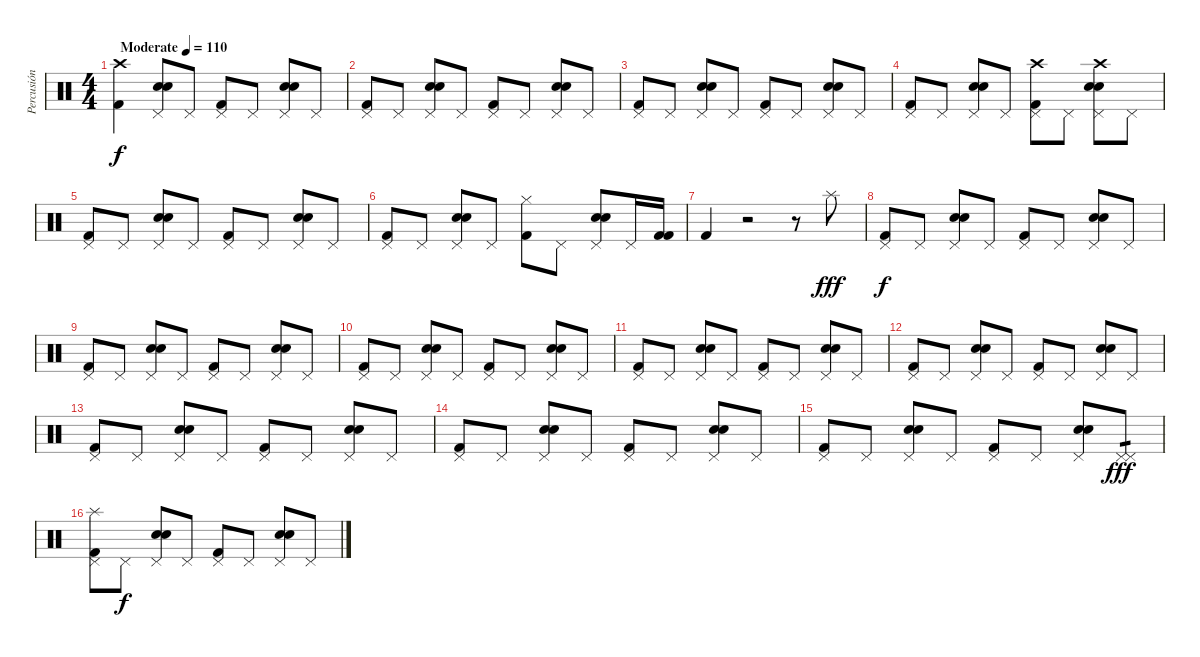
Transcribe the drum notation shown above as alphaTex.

\track ("Percusión" "Percusión") {instrument percussion}
\staff {score}
\articulation defaults
\ts (4 4)
\tempo (110 "Moderate")
\clef neutral
\ks c
("Crash high (hit)" "Kick (hit) 2").4{dy f} ("Pedal Hi-Hat (hit)" "Snare (hit) 2" "Electric Snare (hit)").8 "Pedal Hi-Hat (hit)".8 ("Pedal Hi-Hat (hit)" "Kick (hit) 2").8 "Pedal Hi-Hat (hit)".8 ("Pedal Hi-Hat (hit)" "Snare (hit) 2" "Electric Snare (hit)").8 "Pedal Hi-Hat (hit)".8 |
("Pedal Hi-Hat (hit)" "Kick (hit) 2").8 "Pedal Hi-Hat (hit)".8 ("Pedal Hi-Hat (hit)" "Snare (hit) 2" "Electric Snare (hit)").8 "Pedal Hi-Hat (hit)".8 ("Pedal Hi-Hat (hit)" "Kick (hit) 2").8 "Pedal Hi-Hat (hit)".8 ("Pedal Hi-Hat (hit)" "Snare (hit) 2" "Electric Snare (hit)").8 "Pedal Hi-Hat (hit)".8 |
("Pedal Hi-Hat (hit)" "Kick (hit) 2").8 "Pedal Hi-Hat (hit)".8 ("Pedal Hi-Hat (hit)" "Snare (hit) 2" "Electric Snare (hit)").8 "Pedal Hi-Hat (hit)".8 ("Pedal Hi-Hat (hit)" "Kick (hit) 2").8 "Pedal Hi-Hat (hit)".8 ("Pedal Hi-Hat (hit)" "Snare (hit) 2" "Electric Snare (hit)").8 "Pedal Hi-Hat (hit)".8 |
("Pedal Hi-Hat (hit)" "Kick (hit) 2").8 "Pedal Hi-Hat (hit)".8 ("Pedal Hi-Hat (hit)" "Snare (hit) 2" "Electric Snare (hit)").8 "Pedal Hi-Hat (hit)".8 ("Pedal Hi-Hat (hit)" "Kick (hit) 2" "Crash high (hit)").8 "Pedal Hi-Hat (hit)".8 ("Pedal Hi-Hat (hit)" "Snare (hit) 2" "Electric Snare (hit)" "Crash high (hit)").8 "Pedal Hi-Hat (hit)".8 |
("Pedal Hi-Hat (hit)" "Kick (hit) 2").8 "Pedal Hi-Hat (hit)".8 ("Pedal Hi-Hat (hit)" "Snare (hit) 2" "Electric Snare (hit)").8 "Pedal Hi-Hat (hit)".8 ("Pedal Hi-Hat (hit)" "Kick (hit) 2").8 "Pedal Hi-Hat (hit)".8 ("Pedal Hi-Hat (hit)" "Snare (hit) 2" "Electric Snare (hit)").8 "Pedal Hi-Hat (hit)".8 |
("Pedal Hi-Hat (hit)" "Kick (hit) 2").8 "Pedal Hi-Hat (hit)".8 ("Pedal Hi-Hat (hit)" "Snare (hit) 2" "Electric Snare (hit)").8 "Pedal Hi-Hat (hit)".8 ("Hi-Hat (closed)" "Kick (hit) 2").8 "Pedal Hi-Hat (hit)".8 ("Pedal Hi-Hat (hit)" "Snare (hit) 2" "Electric Snare (hit)").8 "Pedal Hi-Hat (hit)".16 ("Kick (hit) 2" "Kick (hit) 2").16 |
"Kick (hit) 2".4 r.2 r.8 "Splash (hit)".8{dy fff} |
("Pedal Hi-Hat (hit)" "Kick (hit) 2").8{dy f} "Pedal Hi-Hat (hit)".8 ("Pedal Hi-Hat (hit)" "Snare (hit) 2" "Electric Snare (hit)").8 "Pedal Hi-Hat (hit)".8 ("Pedal Hi-Hat (hit)" "Kick (hit) 2").8 "Pedal Hi-Hat (hit)".8 ("Pedal Hi-Hat (hit)" "Snare (hit) 2" "Electric Snare (hit)").8 "Pedal Hi-Hat (hit)".8 |
("Pedal Hi-Hat (hit)" "Kick (hit) 2").8 "Pedal Hi-Hat (hit)".8 ("Pedal Hi-Hat (hit)" "Snare (hit) 2" "Electric Snare (hit)").8 "Pedal Hi-Hat (hit)".8 ("Pedal Hi-Hat (hit)" "Kick (hit) 2").8 "Pedal Hi-Hat (hit)".8 ("Pedal Hi-Hat (hit)" "Snare (hit) 2" "Electric Snare (hit)").8 "Pedal Hi-Hat (hit)".8 |
("Pedal Hi-Hat (hit)" "Kick (hit) 2").8 "Pedal Hi-Hat (hit)".8 ("Pedal Hi-Hat (hit)" "Snare (hit) 2" "Electric Snare (hit)").8 "Pedal Hi-Hat (hit)".8 ("Pedal Hi-Hat (hit)" "Kick (hit) 2").8 "Pedal Hi-Hat (hit)".8 ("Pedal Hi-Hat (hit)" "Snare (hit) 2" "Electric Snare (hit)").8 "Pedal Hi-Hat (hit)".8 |
("Pedal Hi-Hat (hit)" "Kick (hit) 2").8 "Pedal Hi-Hat (hit)".8 ("Pedal Hi-Hat (hit)" "Snare (hit) 2" "Electric Snare (hit)").8 "Pedal Hi-Hat (hit)".8 ("Pedal Hi-Hat (hit)" "Kick (hit) 2").8 "Pedal Hi-Hat (hit)".8 ("Pedal Hi-Hat (hit)" "Snare (hit) 2" "Electric Snare (hit)").8 "Pedal Hi-Hat (hit)".8 |
("Pedal Hi-Hat (hit)" "Kick (hit) 2").8 "Pedal Hi-Hat (hit)".8 ("Pedal Hi-Hat (hit)" "Snare (hit) 2" "Electric Snare (hit)").8 "Pedal Hi-Hat (hit)".8 ("Pedal Hi-Hat (hit)" "Kick (hit) 2").8 "Pedal Hi-Hat (hit)".8 ("Pedal Hi-Hat (hit)" "Snare (hit) 2" "Electric Snare (hit)").8 "Pedal Hi-Hat (hit)".8 |
("Pedal Hi-Hat (hit)" "Kick (hit) 2").8 "Pedal Hi-Hat (hit)".8 ("Pedal Hi-Hat (hit)" "Snare (hit) 2" "Electric Snare (hit)").8 "Pedal Hi-Hat (hit)".8 ("Pedal Hi-Hat (hit)" "Kick (hit) 2").8 "Pedal Hi-Hat (hit)".8 ("Pedal Hi-Hat (hit)" "Snare (hit) 2" "Electric Snare (hit)").8 "Pedal Hi-Hat (hit)".8 |
("Pedal Hi-Hat (hit)" "Kick (hit) 2").8 "Pedal Hi-Hat (hit)".8 ("Pedal Hi-Hat (hit)" "Snare (hit) 2" "Electric Snare (hit)").8 "Pedal Hi-Hat (hit)".8 ("Pedal Hi-Hat (hit)" "Kick (hit) 2").8 "Pedal Hi-Hat (hit)".8 ("Pedal Hi-Hat (hit)" "Snare (hit) 2" "Electric Snare (hit)").8 "Pedal Hi-Hat (hit)".8 |
("Pedal Hi-Hat (hit)" "Kick (hit) 2").8 "Pedal Hi-Hat (hit)".8 ("Pedal Hi-Hat (hit)" "Snare (hit) 2" "Electric Snare (hit)").8 "Pedal Hi-Hat (hit)".8 ("Pedal Hi-Hat (hit)" "Kick (hit) 2").8 "Pedal Hi-Hat (hit)".8 ("Pedal Hi-Hat (hit)" "Snare (hit) 2" "Electric Snare (hit)").8 ("Pedal Hi-Hat (hit)" "Pedal Hi-Hat (hit)").8{tp 1 dy fff} |
("Pedal Hi-Hat (hit)" "Splash (hit)" "Kick (hit) 2").8 "Pedal Hi-Hat (hit)".8{dy f} ("Pedal Hi-Hat (hit)" "Snare (hit) 2" "Electric Snare (hit)").8 "Pedal Hi-Hat (hit)".8 ("Pedal Hi-Hat (hit)" "Kick (hit) 2").8 "Pedal Hi-Hat (hit)".8 ("Pedal Hi-Hat (hit)" "Snare (hit) 2" "Electric Snare (hit)").8 "Pedal Hi-Hat (hit)".8
